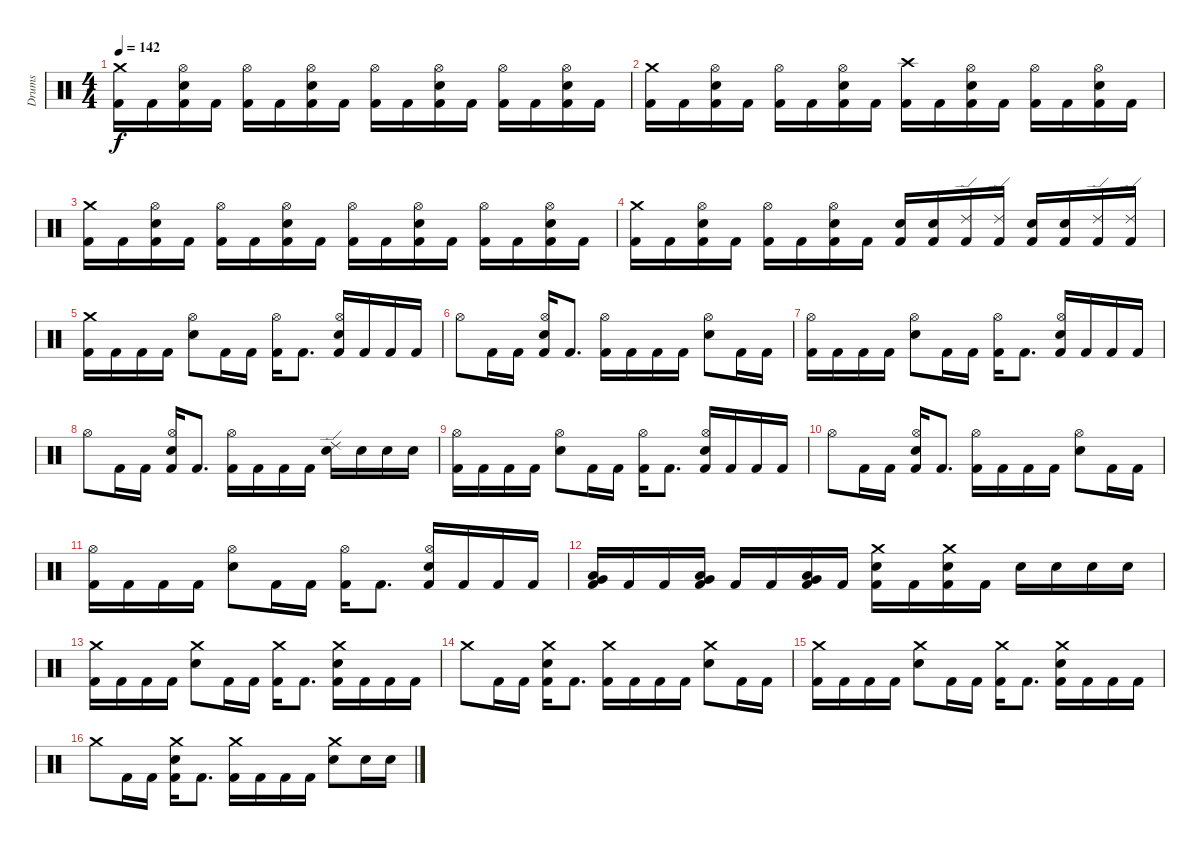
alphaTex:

\track ("Drums" "Drums") {instrument percussion}
\staff {score}
\articulation defaults
\ts (4 4)
\tempo 142
\clef neutral
\ks c
("Crash medium (hit)" "Kick (hit) 2").16{dy f} "Kick (hit) 2".16 ("Hi-Hat (open)" "Electric Snare (hit)" "Kick (hit) 2").16 "Kick (hit) 2".16 ("Hi-Hat (open)" "Kick (hit) 2").16 "Kick (hit) 2".16 ("Hi-Hat (open)" "Electric Snare (hit)" "Kick (hit) 2").16 "Kick (hit) 2".16 ("Hi-Hat (open)" "Kick (hit) 2").16 "Kick (hit) 2".16 ("Hi-Hat (open)" "Electric Snare (hit)" "Kick (hit) 2").16 "Kick (hit) 2".16 ("Hi-Hat (open)" "Kick (hit) 2").16 "Kick (hit) 2".16 ("Hi-Hat (open)" "Electric Snare (hit)" "Kick (hit) 2").16 "Kick (hit) 2".16 |
("Crash medium (hit)" "Kick (hit) 2").16 "Kick (hit) 2".16 ("Hi-Hat (open)" "Electric Snare (hit)" "Kick (hit) 2").16 "Kick (hit) 2".16 ("Hi-Hat (open)" "Kick (hit) 2").16 "Kick (hit) 2".16 ("Hi-Hat (open)" "Electric Snare (hit)" "Kick (hit) 2").16 "Kick (hit) 2".16 ("Crash high (hit)" "Kick (hit) 2").16 "Kick (hit) 2".16 ("Hi-Hat (open)" "Electric Snare (hit)" "Kick (hit) 2").16 "Kick (hit) 2".16 ("Hi-Hat (open)" "Kick (hit) 2").16 "Kick (hit) 2".16 ("Hi-Hat (open)" "Electric Snare (hit)" "Kick (hit) 2").16 "Kick (hit) 2".16 |
("Crash medium (hit)" "Kick (hit) 2").16 "Kick (hit) 2".16 ("Hi-Hat (open)" "Electric Snare (hit)" "Kick (hit) 2").16 "Kick (hit) 2".16 ("Hi-Hat (open)" "Kick (hit) 2").16 "Kick (hit) 2".16 ("Hi-Hat (open)" "Electric Snare (hit)" "Kick (hit) 2").16 "Kick (hit) 2".16 ("Hi-Hat (open)" "Kick (hit) 2").16 "Kick (hit) 2".16 ("Hi-Hat (open)" "Electric Snare (hit)" "Kick (hit) 2").16 "Kick (hit) 2".16 ("Hi-Hat (open)" "Kick (hit) 2").16 "Kick (hit) 2".16 ("Hi-Hat (open)" "Electric Snare (hit)" "Kick (hit) 2").16 "Kick (hit) 2".16 |
("Crash medium (hit)" "Kick (hit) 2").16 "Kick (hit) 2".16 ("Hi-Hat (open)" "Electric Snare (hit)" "Kick (hit) 2").16 "Kick (hit) 2".16 ("Hi-Hat (open)" "Kick (hit) 2").16 "Kick (hit) 2".16 ("Hi-Hat (open)" "Electric Snare (hit)" "Kick (hit) 2").16 "Kick (hit) 2".16 ("Electric Snare (hit)" "Kick (hit) 2").16 ("Electric Snare (hit)" "Kick (hit) 2").16 ("Ride (edge) 2" "Kick (hit) 2").16 ("Ride (edge) 2" "Kick (hit) 2").16 ("Electric Snare (hit)" "Kick (hit) 2").16 ("Electric Snare (hit)" "Kick (hit) 2").16 ("Ride (edge) 2" "Kick (hit) 2").16 ("Ride (edge) 2" "Kick (hit) 2").16 |
("Crash medium (hit)" "Kick (hit) 2").16 "Kick (hit) 2".16 "Kick (hit) 2".16 "Kick (hit) 2".16 ("Hi-Hat (open)" "Electric Snare (hit)").8 "Kick (hit) 2".16 "Kick (hit) 2".16 ("Hi-Hat (open)" "Kick (hit) 2").16 "Kick (hit) 2".8{d} ("Hi-Hat (open)" "Electric Snare (hit)" "Kick (hit) 2").16 "Kick (hit) 2".16 "Kick (hit) 2".16 "Kick (hit) 2".16 |
"Hi-Hat (open)".8 "Kick (hit) 2".16 "Kick (hit) 2".16 ("Hi-Hat (open)" "Electric Snare (hit)" "Kick (hit) 2").16 "Kick (hit) 2".8{d} ("Hi-Hat (open)" "Kick (hit) 2").16 "Kick (hit) 2".16 "Kick (hit) 2".16 "Kick (hit) 2".16 ("Hi-Hat (open)" "Electric Snare (hit)").8 "Kick (hit) 2".16 "Kick (hit) 2".16 |
("Hi-Hat (open)" "Kick (hit) 2").16 "Kick (hit) 2".16 "Kick (hit) 2".16 "Kick (hit) 2".16 ("Hi-Hat (open)" "Electric Snare (hit)").8 "Kick (hit) 2".16 "Kick (hit) 2".16 ("Hi-Hat (open)" "Kick (hit) 2").16 "Kick (hit) 2".8{d} ("Hi-Hat (open)" "Electric Snare (hit)" "Kick (hit) 2").16 "Kick (hit) 2".16 "Kick (hit) 2".16 "Kick (hit) 2".16 |
"Hi-Hat (open)".8 "Kick (hit) 2".16 "Kick (hit) 2".16 ("Hi-Hat (open)" "Electric Snare (hit)" "Kick (hit) 2").16 "Kick (hit) 2".8{d} ("Hi-Hat (open)" "Kick (hit) 2").16 "Kick (hit) 2".16 "Kick (hit) 2".16 "Kick (hit) 2".16 ("Ride (edge) 2" "Electric Snare (hit)").16 "Electric Snare (hit)".16 "Electric Snare (hit)".16 "Electric Snare (hit)".16 |
("Hi-Hat (open)" "Kick (hit) 2").16 "Kick (hit) 2".16 "Kick (hit) 2".16 "Kick (hit) 2".16 ("Hi-Hat (open)" "Electric Snare (hit)").8 "Kick (hit) 2".16 "Kick (hit) 2".16 ("Hi-Hat (open)" "Kick (hit) 2").16 "Kick (hit) 2".8{d} ("Hi-Hat (open)" "Electric Snare (hit)" "Kick (hit) 2").16 "Kick (hit) 2".16 "Kick (hit) 2".16 "Kick (hit) 2".16 |
"Hi-Hat (open)".8 "Kick (hit) 2".16 "Kick (hit) 2".16 ("Hi-Hat (open)" "Electric Snare (hit)" "Kick (hit) 2").16 "Kick (hit) 2".8{d} ("Hi-Hat (open)" "Kick (hit) 2").16 "Kick (hit) 2".16 "Kick (hit) 2".16 "Kick (hit) 2".16 ("Hi-Hat (open)" "Electric Snare (hit)").8 "Kick (hit) 2".16 "Kick (hit) 2".16 |
("Hi-Hat (open)" "Kick (hit) 2").16 "Kick (hit) 2".16 "Kick (hit) 2".16 "Kick (hit) 2".16 ("Hi-Hat (open)" "Electric Snare (hit)").8 "Kick (hit) 2".16 "Kick (hit) 2".16 ("Hi-Hat (open)" "Kick (hit) 2").16 "Kick (hit) 2".8{d} ("Hi-Hat (open)" "Electric Snare (hit)" "Kick (hit) 2").16 "Kick (hit) 2".16 "Kick (hit) 2".16 "Kick (hit) 2".16 |
("Very Low Tom (hit)" "Low Tom (hit)" "Kick (hit) 2").16 "Kick (hit) 2".16 "Kick (hit) 2".16 ("Low Floor Tom (hit)" "Very Low Tom (hit)" "Kick (hit) 2").16 "Kick (hit) 2".16 "Kick (hit) 2".16 ("Low Floor Tom (hit)" "Very Low Tom (hit)" "Kick (hit) 2").16 "Kick (hit) 2".16 ("Crash medium (hit)" "Electric Snare (hit)" "Kick (hit) 2").16 "Kick (hit) 2".16 ("Crash medium (hit)" "Electric Snare (hit)" "Kick (hit) 2").16 "Kick (hit) 2".16 "Electric Snare (hit)".16 "Electric Snare (hit)".16 "Electric Snare (hit)".16 "Electric Snare (hit)".16 |
("Crash medium (hit)" "Kick (hit) 2").16 "Kick (hit) 2".16 "Kick (hit) 2".16 "Kick (hit) 2".16 ("Crash medium (hit)" "Electric Snare (hit)").8 "Kick (hit) 2".16 "Kick (hit) 2".16 ("Crash medium (hit)" "Kick (hit) 2").16 "Kick (hit) 2".8{d} ("Crash medium (hit)" "Electric Snare (hit)" "Kick (hit) 2").16 "Kick (hit) 2".16 "Kick (hit) 2".16 "Kick (hit) 2".16 |
"Crash medium (hit)".8 "Kick (hit) 2".16 "Kick (hit) 2".16 ("Crash medium (hit)" "Electric Snare (hit)" "Kick (hit) 2").16 "Kick (hit) 2".8{d} ("Crash medium (hit)" "Kick (hit) 2").16 "Kick (hit) 2".16 "Kick (hit) 2".16 "Kick (hit) 2".16 ("Crash medium (hit)" "Electric Snare (hit)").8 "Kick (hit) 2".16 "Kick (hit) 2".16 |
("Crash medium (hit)" "Kick (hit) 2").16 "Kick (hit) 2".16 "Kick (hit) 2".16 "Kick (hit) 2".16 ("Crash medium (hit)" "Electric Snare (hit)").8 "Kick (hit) 2".16 "Kick (hit) 2".16 ("Crash medium (hit)" "Kick (hit) 2").16 "Kick (hit) 2".8{d} ("Crash medium (hit)" "Electric Snare (hit)" "Kick (hit) 2").16 "Kick (hit) 2".16 "Kick (hit) 2".16 "Kick (hit) 2".16 |
"Crash medium (hit)".8 "Kick (hit) 2".16 "Kick (hit) 2".16 ("Crash medium (hit)" "Electric Snare (hit)" "Kick (hit) 2").16 "Kick (hit) 2".8{d} ("Crash medium (hit)" "Kick (hit) 2").16 "Kick (hit) 2".16 "Kick (hit) 2".16 "Kick (hit) 2".16 ("Crash medium (hit)" "Electric Snare (hit)").8 "Electric Snare (hit)".16 "Electric Snare (hit)".16
